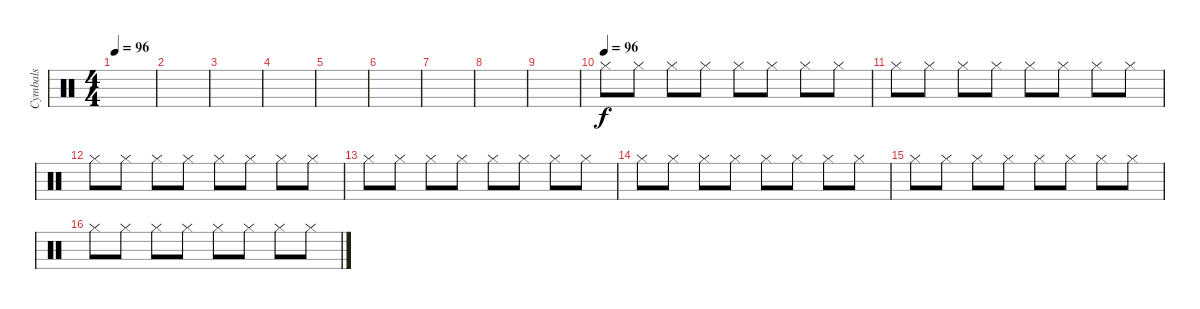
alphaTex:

\track ("Cymbals" "Cymbals") {instrument percussion}
\staff {score}
\articulation defaults
\ts (4 4)
\tempo 96
\clef neutral
\ks c
|
|
|
|
|
|
|
|
|
\tempo (96)
"Hi-Hat (closed)".8 "Hi-Hat (closed)".8 "Hi-Hat (closed)".8 "Hi-Hat (closed)".8 "Hi-Hat (closed)".8 "Hi-Hat (closed)".8 "Hi-Hat (closed)".8 "Hi-Hat (closed)".8 |
"Hi-Hat (closed)".8 "Hi-Hat (closed)".8 "Hi-Hat (closed)".8 "Hi-Hat (closed)".8 "Hi-Hat (closed)".8 "Hi-Hat (closed)".8 "Hi-Hat (closed)".8 "Hi-Hat (closed)".8 |
"Hi-Hat (closed)".8 "Hi-Hat (closed)".8 "Hi-Hat (closed)".8 "Hi-Hat (closed)".8 "Hi-Hat (closed)".8 "Hi-Hat (closed)".8 "Hi-Hat (closed)".8 "Hi-Hat (closed)".8 |
"Hi-Hat (closed)".8 "Hi-Hat (closed)".8 "Hi-Hat (closed)".8 "Hi-Hat (closed)".8 "Hi-Hat (closed)".8 "Hi-Hat (closed)".8 "Hi-Hat (closed)".8 "Hi-Hat (closed)".8 |
"Hi-Hat (closed)".8 "Hi-Hat (closed)".8 "Hi-Hat (closed)".8 "Hi-Hat (closed)".8 "Hi-Hat (closed)".8 "Hi-Hat (closed)".8 "Hi-Hat (closed)".8 "Hi-Hat (closed)".8 |
"Hi-Hat (closed)".8 "Hi-Hat (closed)".8 "Hi-Hat (closed)".8 "Hi-Hat (closed)".8 "Hi-Hat (closed)".8 "Hi-Hat (closed)".8 "Hi-Hat (closed)".8 "Hi-Hat (closed)".8 |
"Hi-Hat (closed)".8 "Hi-Hat (closed)".8 "Hi-Hat (closed)".8 "Hi-Hat (closed)".8 "Hi-Hat (closed)".8 "Hi-Hat (closed)".8 "Hi-Hat (closed)".8 "Hi-Hat (closed)".8
